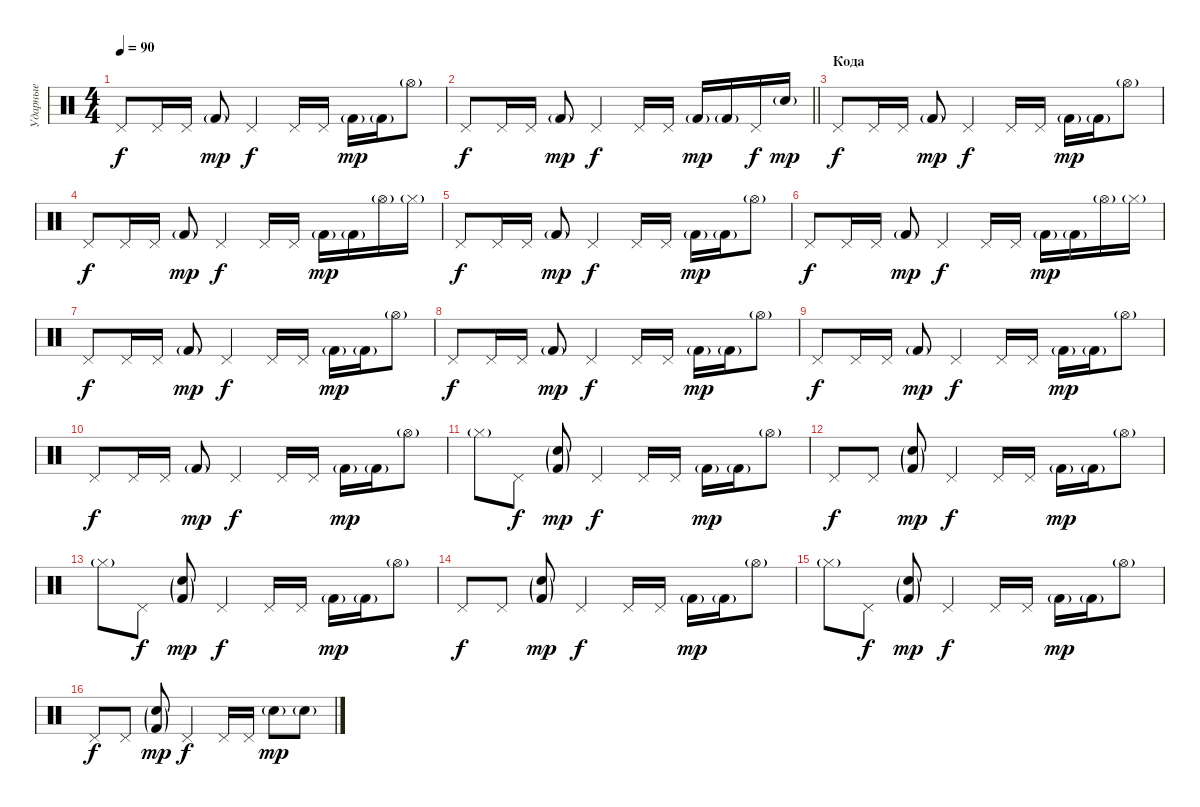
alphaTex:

\track ("Ударные" "Ударные") {instrument percussion}
\staff {score}
\articulation defaults
\ts (4 4)
\tempo 90
\clef neutral
\ks c "Pedal Hi-Hat (hit)".8{dy f} "Pedal Hi-Hat (hit)".16 "Pedal Hi-Hat (hit)".16 "Kick (hit) 2"{g}.8{dy mp} "Pedal Hi-Hat (hit)".4{dy f} "Pedal Hi-Hat (hit)".16 "Pedal Hi-Hat (hit)".16 "Kick (hit) 2"{g}.16{dy mp} "Kick (hit) 2"{g}.16 "Hi-Hat (open)"{g}.8
|
\barLineRight lightlight "Pedal Hi-Hat (hit)".8{dy f} "Pedal Hi-Hat (hit)".16 "Pedal Hi-Hat (hit)".16 "Kick (hit) 2"{g}.8{dy mp} "Pedal Hi-Hat (hit)".4{dy f} "Pedal Hi-Hat (hit)".16 "Pedal Hi-Hat (hit)".16 "Kick (hit) 2"{g}.16{dy mp} "Kick (hit) 2"{g}.16 "Pedal Hi-Hat (hit)".16{dy f} "Snare (hit) 2"{g}.16{dy mp}
|
\section ("" "Кода")
"Pedal Hi-Hat (hit)".8{dy f} "Pedal Hi-Hat (hit)".16 "Pedal Hi-Hat (hit)".16 "Kick (hit) 2"{g}.8{dy mp} "Pedal Hi-Hat (hit)".4{dy f} "Pedal Hi-Hat (hit)".16 "Pedal Hi-Hat (hit)".16 "Kick (hit) 2"{g}.16{dy mp} "Kick (hit) 2"{g}.16 "Hi-Hat (open)"{g}.8 |
"Pedal Hi-Hat (hit)".8{dy f} "Pedal Hi-Hat (hit)".16 "Pedal Hi-Hat (hit)".16 "Kick (hit) 2"{g}.8{dy mp} "Pedal Hi-Hat (hit)".4{dy f} "Pedal Hi-Hat (hit)".16 "Pedal Hi-Hat (hit)".16 "Kick (hit) 2"{g}.16{dy mp} "Kick (hit) 2"{g}.16 "Hi-Hat (open)"{g}.16 "Hi-Hat (closed)"{g}.16 |
"Pedal Hi-Hat (hit)".8{dy f} "Pedal Hi-Hat (hit)".16 "Pedal Hi-Hat (hit)".16 "Kick (hit) 2"{g}.8{dy mp} "Pedal Hi-Hat (hit)".4{dy f} "Pedal Hi-Hat (hit)".16 "Pedal Hi-Hat (hit)".16 "Kick (hit) 2"{g}.16{dy mp} "Kick (hit) 2"{g}.16 "Hi-Hat (open)"{g}.8 |
"Pedal Hi-Hat (hit)".8{dy f} "Pedal Hi-Hat (hit)".16 "Pedal Hi-Hat (hit)".16 "Kick (hit) 2"{g}.8{dy mp} "Pedal Hi-Hat (hit)".4{dy f} "Pedal Hi-Hat (hit)".16 "Pedal Hi-Hat (hit)".16 "Kick (hit) 2"{g}.16{dy mp} "Kick (hit) 2"{g}.16 "Hi-Hat (open)"{g}.16 "Hi-Hat (closed)"{g}.16 |
"Pedal Hi-Hat (hit)".8{dy f} "Pedal Hi-Hat (hit)".16 "Pedal Hi-Hat (hit)".16 "Kick (hit) 2"{g}.8{dy mp} "Pedal Hi-Hat (hit)".4{dy f} "Pedal Hi-Hat (hit)".16 "Pedal Hi-Hat (hit)".16 "Kick (hit) 2"{g}.16{dy mp} "Kick (hit) 2"{g}.16 "Hi-Hat (open)"{g}.8 |
"Pedal Hi-Hat (hit)".8{dy f} "Pedal Hi-Hat (hit)".16 "Pedal Hi-Hat (hit)".16 "Kick (hit) 2"{g}.8{dy mp} "Pedal Hi-Hat (hit)".4{dy f} "Pedal Hi-Hat (hit)".16 "Pedal Hi-Hat (hit)".16 "Kick (hit) 2"{g}.16{dy mp} "Kick (hit) 2"{g}.16 "Hi-Hat (open)"{g}.8 |
"Pedal Hi-Hat (hit)".8{dy f} "Pedal Hi-Hat (hit)".16 "Pedal Hi-Hat (hit)".16 "Kick (hit) 2"{g}.8{dy mp} "Pedal Hi-Hat (hit)".4{dy f} "Pedal Hi-Hat (hit)".16 "Pedal Hi-Hat (hit)".16 "Kick (hit) 2"{g}.16{dy mp} "Kick (hit) 2"{g}.16 "Hi-Hat (open)"{g}.8 |
"Pedal Hi-Hat (hit)".8{dy f} "Pedal Hi-Hat (hit)".16 "Pedal Hi-Hat (hit)".16 "Kick (hit) 2"{g}.8{dy mp} "Pedal Hi-Hat (hit)".4{dy f} "Pedal Hi-Hat (hit)".16 "Pedal Hi-Hat (hit)".16 "Kick (hit) 2"{g}.16{dy mp} "Kick (hit) 2"{g}.16 "Hi-Hat (open)"{g}.8 |
"Hi-Hat (closed)"{g}.8 "Pedal Hi-Hat (hit)".8{dy f} ("Snare (hit) 2"{g} "Kick (hit) 2"{g}).8{dy mp} "Pedal Hi-Hat (hit)".4{dy f} "Pedal Hi-Hat (hit)".16 "Pedal Hi-Hat (hit)".16 "Kick (hit) 2"{g}.16{dy mp} "Kick (hit) 2"{g}.16 "Hi-Hat (open)"{g}.8 |
"Pedal Hi-Hat (hit)".8{dy f} "Pedal Hi-Hat (hit)".8 ("Snare (hit) 2"{g} "Kick (hit) 2"{g}).8{dy mp} "Pedal Hi-Hat (hit)".4{dy f} "Pedal Hi-Hat (hit)".16 "Pedal Hi-Hat (hit)".16 "Kick (hit) 2"{g}.16{dy mp} "Kick (hit) 2"{g}.16 "Hi-Hat (open)"{g}.8 |
"Hi-Hat (closed)"{g}.8 "Pedal Hi-Hat (hit)".8{dy f} ("Snare (hit) 2"{g} "Kick (hit) 2"{g}).8{dy mp} "Pedal Hi-Hat (hit)".4{dy f} "Pedal Hi-Hat (hit)".16 "Pedal Hi-Hat (hit)".16 "Kick (hit) 2"{g}.16{dy mp} "Kick (hit) 2"{g}.16 "Hi-Hat (open)"{g}.8 |
"Pedal Hi-Hat (hit)".8{dy f} "Pedal Hi-Hat (hit)".8 ("Snare (hit) 2"{g} "Kick (hit) 2"{g}).8{dy mp} "Pedal Hi-Hat (hit)".4{dy f} "Pedal Hi-Hat (hit)".16 "Pedal Hi-Hat (hit)".16 "Kick (hit) 2"{g}.16{dy mp} "Kick (hit) 2"{g}.16 "Hi-Hat (open)"{g}.8 |
"Hi-Hat (closed)"{g}.8 "Pedal Hi-Hat (hit)".8{dy f} ("Snare (hit) 2"{g} "Kick (hit) 2"{g}).8{dy mp} "Pedal Hi-Hat (hit)".4{dy f} "Pedal Hi-Hat (hit)".16 "Pedal Hi-Hat (hit)".16 "Kick (hit) 2"{g}.16{dy mp} "Kick (hit) 2"{g}.16 "Hi-Hat (open)"{g}.8 |
"Pedal Hi-Hat (hit)".8{dy f} "Pedal Hi-Hat (hit)".8 ("Snare (hit) 2"{g} "Kick (hit) 2"{g}).8{dy mp} "Pedal Hi-Hat (hit)".4{dy f} "Pedal Hi-Hat (hit)".16 "Pedal Hi-Hat (hit)".16 "Snare (hit) 2"{g}.8{dy mp} "Snare (hit) 2"{g}.8
